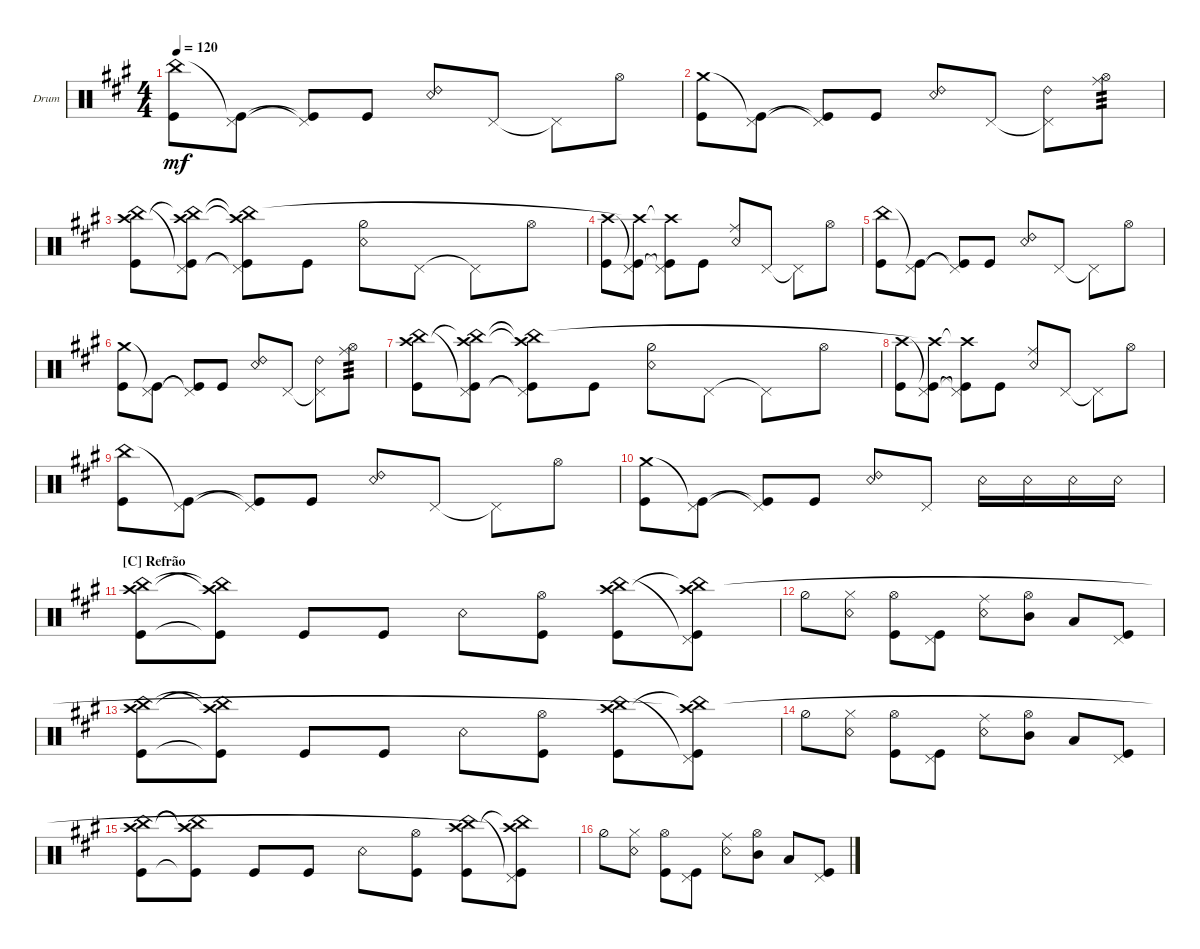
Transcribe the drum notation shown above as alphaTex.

\defaultSystemsLayout 4
\bracketExtendMode groupsimilarinstruments
\firstSystemTrackNameOrientation horizontal
\otherSystemsTrackNameOrientation horizontal
\track ("Drum" "Drum") {multiBarRest instrument percussion}
\staff {score}
\articulation defaults
\ts (4 4)
\tempo 120
\clef neutral
\ks a
("Kick (hit)" "China (hit)").8{dy mf} ("Pedal Hi-Hat (hit)" "Kick (hit)"{t}).8 ("Kick (hit)"{t} "Pedal Hi-Hat (hit)"{t}).8 "Kick (hit)".8 ("Snare (rim shot)" "Ride (bell) 2").8 "Pedal Hi-Hat (hit)".8 "Pedal Hi-Hat (hit)"{t}.8 "Hi-Hat (open)".8 |
("Kick (hit)" "Crash medium (hit)").8 ("Pedal Hi-Hat (hit)" "Kick (hit)"{t}).8 ("Kick (hit)"{t} "Pedal Hi-Hat (hit)"{t}).8 "Kick (hit)".8 ("Snare (rim shot)" "Ride (bell) 2").8 "Pedal Hi-Hat (hit)".8 ("Pedal Hi-Hat (hit)"{t} "Ride (bell) 2").8 ("Hi-Hat (open)" "Ride (middle)").8{tp 3} |
("Kick (hit)" "China (hit)" "Crash high (hit)").8 ("Pedal Hi-Hat (hit)" "Kick (hit)"{t} "China (hit)"{t} "Crash high (hit)").8 ("Kick (hit)"{t} "Pedal Hi-Hat (hit)"{t} "China (hit)"{t} "Crash high (hit)"{t}).8 "Kick (hit)".8 ("Snare (rim shot)" "Hi-Hat (half)").8 "Pedal Hi-Hat (hit)".8 "Pedal Hi-Hat (hit)"{t}.8 "Hi-Hat (open)".8 |
("Kick (hit)" "Crash high (hit)").8 ("Pedal Hi-Hat (hit)" "Kick (hit)"{t} "Crash high (hit)"{t}).8 ("Kick (hit)"{t} "Pedal Hi-Hat (hit)"{t} "Crash high (hit)"{t}).8 "Kick (hit)".8 ("Snare (rim shot)" "Ride (middle)").8 "Pedal Hi-Hat (hit)".8 "Pedal Hi-Hat (hit)"{t}.8 "Hi-Hat (open)".8 |
("Kick (hit)" "China (hit)").8 ("Pedal Hi-Hat (hit)" "Kick (hit)"{t}).8 ("Kick (hit)"{t} "Pedal Hi-Hat (hit)"{t}).8 "Kick (hit)".8 ("Snare (rim shot)" "Ride (bell) 2").8 "Pedal Hi-Hat (hit)".8 "Pedal Hi-Hat (hit)"{t}.8 "Hi-Hat (open)".8 |
("Kick (hit)" "Crash medium (hit)").8 ("Pedal Hi-Hat (hit)" "Kick (hit)"{t}).8 ("Kick (hit)"{t} "Pedal Hi-Hat (hit)"{t}).8 "Kick (hit)".8 ("Snare (rim shot)" "Ride (bell) 2").8 "Pedal Hi-Hat (hit)".8 ("Pedal Hi-Hat (hit)"{t} "Ride (bell) 2").8 ("Hi-Hat (open)" "Ride (middle)").8{tp 3} |
("Kick (hit)" "China (hit)" "Crash high (hit)").8 ("Pedal Hi-Hat (hit)" "Kick (hit)"{t} "China (hit)"{t} "Crash high (hit)").8 ("Kick (hit)"{t} "Pedal Hi-Hat (hit)"{t} "China (hit)"{t} "Crash high (hit)"{t}).8 "Kick (hit)".8 ("Snare (rim shot)" "Hi-Hat (half)").8 "Pedal Hi-Hat (hit)".8 "Pedal Hi-Hat (hit)"{t}.8 "Hi-Hat (open)".8 |
("Kick (hit)" "Crash high (hit)").8 ("Pedal Hi-Hat (hit)" "Kick (hit)"{t} "Crash high (hit)"{t}).8 ("Kick (hit)"{t} "Pedal Hi-Hat (hit)"{t} "Crash high (hit)"{t}).8 "Kick (hit)".8 ("Snare (rim shot)" "Ride (middle)").8 "Pedal Hi-Hat (hit)".8 "Pedal Hi-Hat (hit)"{t}.8 "Hi-Hat (open)".8 |
("Kick (hit)" "China (hit)").8 ("Pedal Hi-Hat (hit)" "Kick (hit)"{t}).8 ("Kick (hit)"{t} "Pedal Hi-Hat (hit)"{t}).8 "Kick (hit)".8 ("Snare (rim shot)" "Ride (bell) 2").8 "Pedal Hi-Hat (hit)".8 "Pedal Hi-Hat (hit)"{t}.8 "Hi-Hat (open)".8 |
("Kick (hit)" "Crash medium (hit)").8 ("Pedal Hi-Hat (hit)" "Kick (hit)"{t}).8 ("Kick (hit)"{t} "Pedal Hi-Hat (hit)"{t}).8 "Kick (hit)".8 ("Snare (rim shot)" "Ride (bell) 2").8 "Pedal Hi-Hat (hit)".8 "Snare (rim shot)".16 "Snare (rim shot)".16 "Snare (rim shot)".16 "Snare (rim shot)".16 |
\section ("C" "Refrão")
("Kick (hit)" "Crash high (hit)" "China (hit)").8 ("Kick (hit)"{t} "China (hit)"{t} "Crash high (hit)"{t}).8 "Kick (hit)".8 "Kick (hit)".8 "Snare (rim shot)".8 ("Kick (hit)" "Hi-Hat (open)").8 ("Kick (hit)" "China (hit)" "Crash high (hit)").8 ("Pedal Hi-Hat (hit)" "Kick (hit)"{t} "China (hit)"{t} "Crash high (hit)").8 |
"Hi-Hat (half)".8 ("Snare (rim shot)" "Hi-Hat (closed)").8 ("Kick (hit)" "Hi-Hat (open)").8 ("Kick (hit)" "Pedal Hi-Hat (hit)").8 ("Snare (rim shot)" "Ride (middle)").8 ("Mid Tom (hit)" "Hi-Hat (open)").8 "Low Tom (hit)".8 ("Kick (hit)" "Pedal Hi-Hat (hit)").8 |
("Kick (hit)" "Crash high (hit)" "China (hit)").8 ("Kick (hit)"{t} "China (hit)"{t} "Crash high (hit)"{t}).8 "Kick (hit)".8 "Kick (hit)".8 "Snare (rim shot)".8 ("Kick (hit)" "Hi-Hat (open)").8 ("Kick (hit)" "China (hit)" "Crash high (hit)").8 ("Pedal Hi-Hat (hit)" "Kick (hit)"{t} "China (hit)"{t} "Crash high (hit)"{t}).8 |
"Hi-Hat (half)".8 ("Snare (rim shot)" "Hi-Hat (closed)").8 ("Kick (hit)" "Hi-Hat (open)").8 ("Kick (hit)" "Pedal Hi-Hat (hit)").8 ("Snare (rim shot)" "Ride (middle)").8 ("Mid Tom (hit)" "Hi-Hat (open)").8 "Low Tom (hit)".8 ("Kick (hit)" "Pedal Hi-Hat (hit)").8 |
("Kick (hit)" "Crash high (hit)" "China (hit)").8 ("Kick (hit)"{t} "China (hit)"{t} "Crash high (hit)"{t}).8 "Kick (hit)".8 "Kick (hit)".8 "Snare (rim shot)".8 ("Kick (hit)" "Hi-Hat (open)").8 ("Kick (hit)" "China (hit)" "Crash high (hit)").8 ("Pedal Hi-Hat (hit)" "Kick (hit)"{t} "China (hit)"{t} "Crash high (hit)"{t}).8 |
"Hi-Hat (half)".8 ("Snare (rim shot)" "Hi-Hat (closed)").8 ("Kick (hit)" "Hi-Hat (open)").8 ("Kick (hit)" "Pedal Hi-Hat (hit)").8 ("Snare (rim shot)" "Ride (middle)").8 ("Mid Tom (hit)" "Hi-Hat (open)").8 "Low Tom (hit)".8 ("Kick (hit)" "Pedal Hi-Hat (hit)").8
